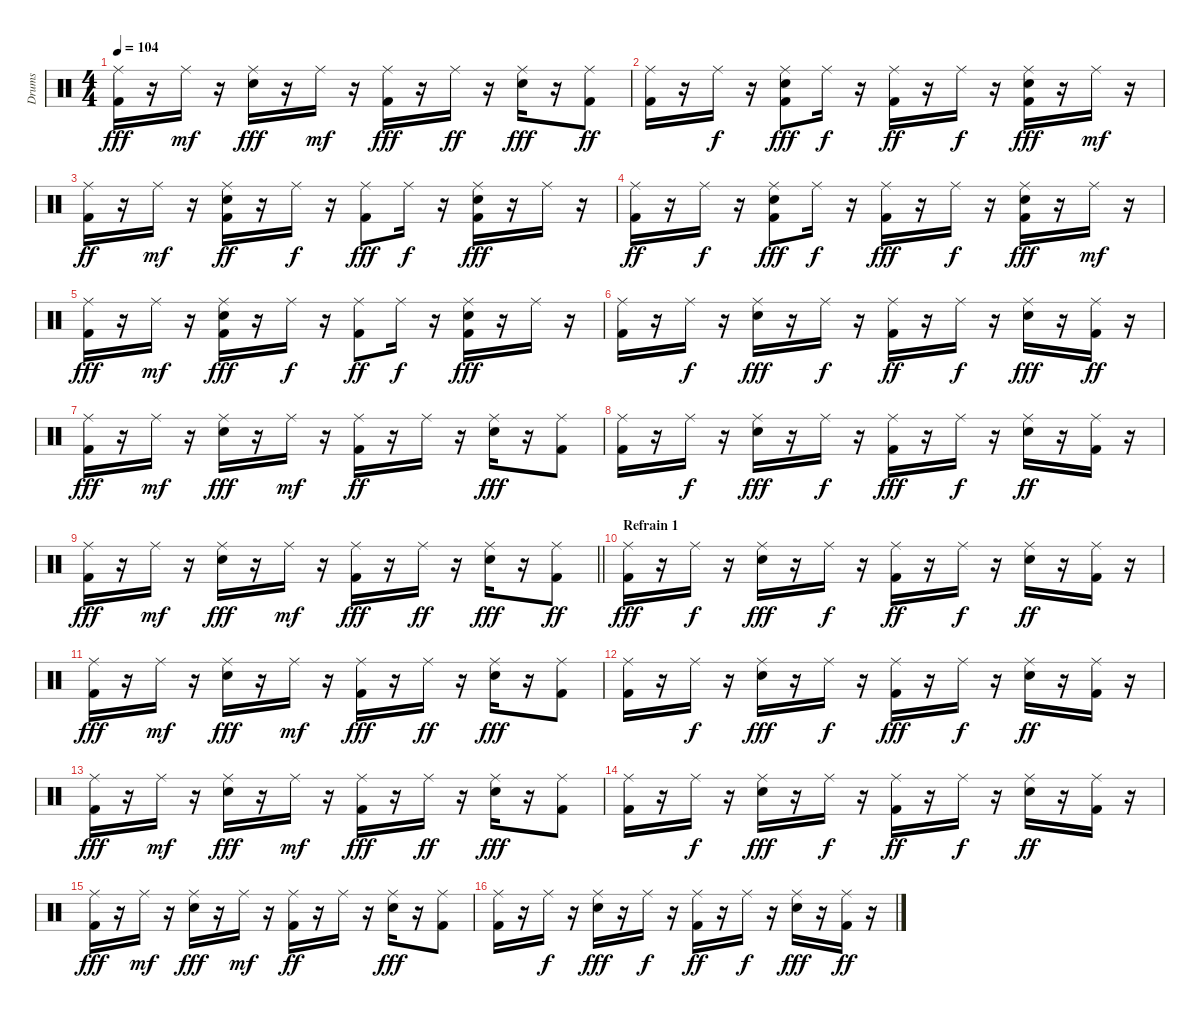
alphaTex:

\track ("Drums" "Drums") {instrument percussion}
\staff {score}
\articulation defaults
\ts (4 4)
\tempo 104
\clef neutral
\ks c
("Ride (middle)" "Kick (hit) 2").16{dy fff} r.16 "Ride (middle)".16{dy mf} r.16 ("Ride (middle)" "Snare (hit) 2").16{dy fff} r.16 "Ride (middle)".16{dy mf} r.16 ("Ride (middle)" "Kick (hit) 2").16{dy fff} r.16 "Ride (middle)".16{dy ff} r.16 ("Ride (middle)" "Snare (hit) 2").16{dy fff} r.16 ("Ride (middle)" "Kick (hit) 2").8{dy ff} |
("Kick (hit) 2" "Ride (middle)").16 r.16 "Ride (middle)".16{dy f} r.16 ("Kick (hit) 2" "Ride (middle)" "Snare (hit) 2").8{dy fff} "Ride (middle)".16{dy f} r.16 ("Kick (hit) 2" "Ride (middle)").16{dy ff} r.16 "Ride (middle)".16{dy f} r.16 ("Snare (hit) 2" "Kick (hit) 2" "Ride (middle)").16{dy fff} r.16 "Ride (middle)".16{dy mf} r.16 |
("Kick (hit) 2" "Ride (middle)").16{dy ff} r.16 "Ride (middle)".16{dy mf} r.16 ("Kick (hit) 2" "Snare (hit) 2" "Ride (middle)").16{dy ff} r.16 "Ride (middle)".16{dy f} r.16 ("Ride (middle)" "Kick (hit) 2").8{dy fff} "Ride (middle)".16{dy f} r.16 ("Ride (middle)" "Snare (hit) 2" "Kick (hit) 2").16{dy fff} r.16 "Ride (middle)".16 r.16 |
("Ride (middle)" "Kick (hit) 2").16{dy ff} r.16 "Ride (middle)".16{dy f} r.16 ("Ride (middle)" "Snare (hit) 2" "Kick (hit) 2").8{dy fff} "Ride (middle)".16{dy f} r.16 ("Ride (middle)" "Kick (hit) 2").16{dy fff} r.16 "Ride (middle)".16{dy f} r.16 ("Ride (middle)" "Snare (hit) 2" "Kick (hit) 2").16{dy fff} r.16 "Ride (middle)".16{dy mf} r.16 |
("Ride (middle)" "Kick (hit) 2").16{dy fff} r.16 "Ride (middle)".16{dy mf} r.16 ("Kick (hit) 2" "Ride (middle)" "Snare (hit) 2").16{dy fff} r.16 "Ride (middle)".16{dy f} r.16 ("Kick (hit) 2" "Ride (middle)").8{dy ff} "Ride (middle)".16{dy f} r.16 ("Snare (hit) 2" "Ride (middle)" "Kick (hit) 2").16{dy fff} r.16 "Ride (middle)".16 r.16 |
("Ride (middle)" "Kick (hit) 2").16 r.16 "Ride (middle)".16{dy f} r.16 ("Snare (hit) 2" "Ride (middle)").16{dy fff} r.16 "Ride (middle)".16{dy f} r.16 ("Kick (hit) 2" "Ride (middle)").16{dy ff} r.16 "Ride (middle)".16{dy f} r.16 ("Ride (middle)" "Snare (hit) 2").16{dy fff} r.16 ("Kick (hit) 2" "Ride (middle)").16{dy ff} r.16 |
("Kick (hit) 2" "Ride (middle)").16{dy fff} r.16 "Ride (middle)".16{dy mf} r.16 ("Snare (hit) 2" "Ride (middle)").16{dy fff} r.16 "Ride (middle)".16{dy mf} r.16 ("Kick (hit) 2" "Ride (middle)").16{dy ff} r.16 "Ride (middle)".16 r.16 ("Ride (middle)" "Snare (hit) 2").16{dy fff} r.16 ("Kick (hit) 2" "Ride (middle)").8 |
("Ride (middle)" "Kick (hit) 2").16 r.16 "Ride (middle)".16{dy f} r.16 ("Snare (hit) 2" "Ride (middle)").16{dy fff} r.16 "Ride (middle)".16{dy f} r.16 ("Ride (middle)" "Kick (hit) 2").16{dy fff} r.16 "Ride (middle)".16{dy f} r.16 ("Snare (hit) 2" "Ride (middle)").16{dy ff} r.16 ("Kick (hit) 2" "Ride (middle)").16 r.16 |
\barLineRight lightlight
("Ride (middle)" "Kick (hit) 2").16{dy fff} r.16 "Ride (middle)".16{dy mf} r.16 ("Ride (middle)" "Snare (hit) 2").16{dy fff} r.16 "Ride (middle)".16{dy mf} r.16 ("Ride (middle)" "Kick (hit) 2").16{dy fff} r.16 "Ride (middle)".16{dy ff} r.16 ("Ride (middle)" "Snare (hit) 2").16{dy fff} r.16 ("Ride (middle)" "Kick (hit) 2").8{dy ff} |
\section ("" "Refrain 1")
("Kick (hit) 2" "Ride (middle)").16{dy fff} r.16 "Ride (middle)".16{dy f} r.16 ("Snare (hit) 2" "Ride (middle)").16{dy fff} r.16 "Ride (middle)".16{dy f} r.16 ("Kick (hit) 2" "Ride (middle)").16{dy ff} r.16 "Ride (middle)".16{dy f} r.16 ("Snare (hit) 2" "Ride (middle)").16{dy ff} r.16 ("Kick (hit) 2" "Ride (middle)").16 r.16 |
("Kick (hit) 2" "Ride (middle)").16{dy fff} r.16 "Ride (middle)".16{dy mf} r.16 ("Ride (middle)" "Snare (hit) 2").16{dy fff} r.16 "Ride (middle)".16{dy mf} r.16 ("Ride (middle)" "Kick (hit) 2").16{dy fff} r.16 "Ride (middle)".16{dy ff} r.16 ("Snare (hit) 2" "Ride (middle)").16{dy fff} r.16 ("Kick (hit) 2" "Ride (middle)").8 |
("Kick (hit) 2" "Ride (middle)").16 r.16 "Ride (middle)".16{dy f} r.16 ("Ride (middle)" "Snare (hit) 2").16{dy fff} r.16 "Ride (middle)".16{dy f} r.16 ("Ride (middle)" "Kick (hit) 2").16{dy fff} r.16 "Ride (middle)".16{dy f} r.16 ("Snare (hit) 2" "Ride (middle)").16{dy ff} r.16 ("Kick (hit) 2" "Ride (middle)").16 r.16 |
("Ride (middle)" "Kick (hit) 2").16{dy fff} r.16 "Ride (middle)".16{dy mf} r.16 ("Snare (hit) 2" "Ride (middle)").16{dy fff} r.16 "Ride (middle)".16{dy mf} r.16 ("Ride (middle)" "Kick (hit) 2").16{dy fff} r.16 "Ride (middle)".16{dy ff} r.16 ("Snare (hit) 2" "Ride (middle)").16{dy fff} r.16 ("Kick (hit) 2" "Ride (middle)").8 |
("Kick (hit) 2" "Ride (middle)").16 r.16 "Ride (middle)".16{dy f} r.16 ("Snare (hit) 2" "Ride (middle)").16{dy fff} r.16 "Ride (middle)".16{dy f} r.16 ("Kick (hit) 2" "Ride (middle)").16{dy ff} r.16 "Ride (middle)".16{dy f} r.16 ("Snare (hit) 2" "Ride (middle)").16{dy ff} r.16 ("Kick (hit) 2" "Ride (middle)").16 r.16 |
("Kick (hit) 2" "Ride (middle)").16{dy fff} r.16 "Ride (middle)".16{dy mf} r.16 ("Ride (middle)" "Snare (hit) 2").16{dy fff} r.16 "Ride (middle)".16{dy mf} r.16 ("Kick (hit) 2" "Ride (middle)").16{dy ff} r.16 "Ride (middle)".16 r.16 ("Snare (hit) 2" "Ride (middle)").16{dy fff} r.16 ("Kick (hit) 2" "Ride (middle)").8 |
("Ride (middle)" "Kick (hit) 2").16 r.16 "Ride (middle)".16{dy f} r.16 ("Snare (hit) 2" "Ride (middle)").16{dy fff} r.16 "Ride (middle)".16{dy f} r.16 ("Kick (hit) 2" "Ride (middle)").16{dy ff} r.16 "Ride (middle)".16{dy f} r.16 ("Ride (middle)" "Snare (hit) 2").16{dy fff} r.16 ("Ride (middle)" "Kick (hit) 2").16{dy ff} r.16
